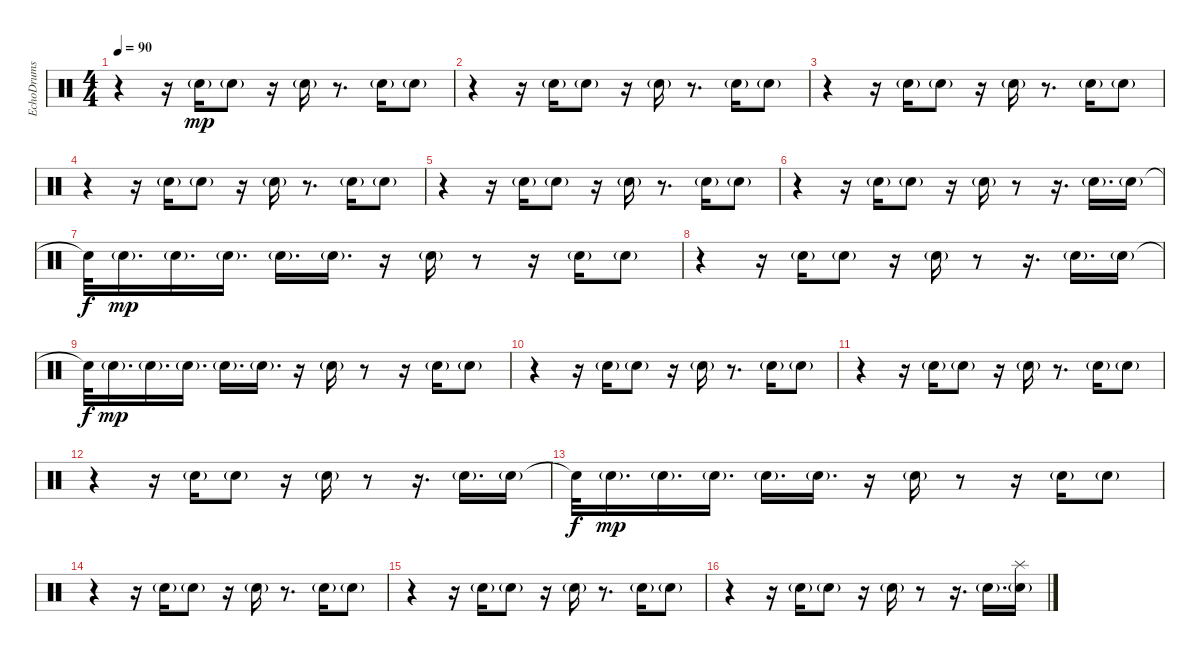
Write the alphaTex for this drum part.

\track ("EchoDrums" "EchoDrums") {instrument percussion}
\staff {score}
\articulation defaults
\ts (4 4)
\tempo 90
\clef neutral
\ks c
r.4{dy mp} r.16 "Electric Snare (hit)"{g}.16 "Electric Snare (hit)"{g}.8 r.16 "Electric Snare (hit)"{g}.16 r.8{d} "Electric Snare (hit)"{g}.16 "Electric Snare (hit)"{g}.8 |
r.4 r.16 "Electric Snare (hit)"{g}.16 "Electric Snare (hit)"{g}.8 r.16 "Electric Snare (hit)"{g}.16 r.8{d} "Electric Snare (hit)"{g}.16 "Electric Snare (hit)"{g}.8 |
r.4 r.16 "Electric Snare (hit)"{g}.16 "Electric Snare (hit)"{g}.8 r.16 "Electric Snare (hit)"{g}.16 r.8{d} "Electric Snare (hit)"{g}.16 "Electric Snare (hit)"{g}.8 |
r.4 r.16 "Electric Snare (hit)"{g}.16 "Electric Snare (hit)"{g}.8 r.16 "Electric Snare (hit)"{g}.16 r.8{d} "Electric Snare (hit)"{g}.16 "Electric Snare (hit)"{g}.8 |
r.4 r.16 "Electric Snare (hit)"{g}.16 "Electric Snare (hit)"{g}.8 r.16 "Electric Snare (hit)"{g}.16 r.8{d} "Electric Snare (hit)"{g}.16 "Electric Snare (hit)"{g}.8 |
r.4 r.16 "Electric Snare (hit)"{g}.16 "Electric Snare (hit)"{g}.8 r.16 "Electric Snare (hit)"{g}.16 r.8 r.16{d} "Electric Snare (hit)"{g}.16{d} "Electric Snare (hit)"{g}.16 |
"Snare (hit)"{t}.32{dy f} "Electric Snare (hit)"{g}.16{d dy mp} "Electric Snare (hit)"{g}.16{d} "Electric Snare (hit)"{g}.16{d} "Electric Snare (hit)"{g}.16{d} "Electric Snare (hit)"{g}.16{d} r.16 "Electric Snare (hit)"{g}.16 r.8 r.16 "Electric Snare (hit)"{g}.16 "Electric Snare (hit)"{g}.8 |
r.4 r.16 "Electric Snare (hit)"{g}.16 "Electric Snare (hit)"{g}.8 r.16 "Electric Snare (hit)"{g}.16 r.8 r.16{d} "Electric Snare (hit)"{g}.16{d} "Electric Snare (hit)"{g}.16 |
"Snare (hit)"{t}.32{dy f} "Electric Snare (hit)"{g}.16{d dy mp} "Electric Snare (hit)"{g}.16{d} "Electric Snare (hit)"{g}.16{d} "Electric Snare (hit)"{g}.16{d} "Electric Snare (hit)"{g}.16{d} r.16 "Electric Snare (hit)"{g}.16 r.8 r.16 "Electric Snare (hit)"{g}.16 "Electric Snare (hit)"{g}.8 |
r.4 r.16 "Electric Snare (hit)"{g}.16 "Electric Snare (hit)"{g}.8 r.16 "Electric Snare (hit)"{g}.16 r.8{d} "Electric Snare (hit)"{g}.16 "Electric Snare (hit)"{g}.8 |
r.4 r.16 "Electric Snare (hit)"{g}.16 "Electric Snare (hit)"{g}.8 r.16 "Electric Snare (hit)"{g}.16 r.8{d} "Electric Snare (hit)"{g}.16 "Electric Snare (hit)"{g}.8 |
r.4 r.16 "Electric Snare (hit)"{g}.16 "Electric Snare (hit)"{g}.8 r.16 "Electric Snare (hit)"{g}.16 r.8 r.16{d} "Electric Snare (hit)"{g}.16{d} "Electric Snare (hit)"{g}.16 |
"Snare (hit)"{t}.32{dy f} "Electric Snare (hit)"{g}.16{d dy mp} "Electric Snare (hit)"{g}.16{d} "Electric Snare (hit)"{g}.16{d} "Electric Snare (hit)"{g}.16{d} "Electric Snare (hit)"{g}.16{d} r.16 "Electric Snare (hit)"{g}.16 r.8 r.16 "Electric Snare (hit)"{g}.16 "Electric Snare (hit)"{g}.8 |
r.4 r.16 "Electric Snare (hit)"{g}.16 "Electric Snare (hit)"{g}.8 r.16 "Electric Snare (hit)"{g}.16 r.8{d} "Electric Snare (hit)"{g}.16 "Electric Snare (hit)"{g}.8 |
r.4 r.16 "Electric Snare (hit)"{g}.16 "Electric Snare (hit)"{g}.8 r.16 "Electric Snare (hit)"{g}.16 r.8{d} "Electric Snare (hit)"{g}.16 "Electric Snare (hit)"{g}.8 |
r.4 r.16 "Electric Snare (hit)"{g}.16 "Electric Snare (hit)"{g}.8 r.16 "Electric Snare (hit)"{g}.16 r.8 r.16{d} "Electric Snare (hit)"{g}.16{d} ("Splash (hit)" "Electric Snare (hit)"{g}).16
